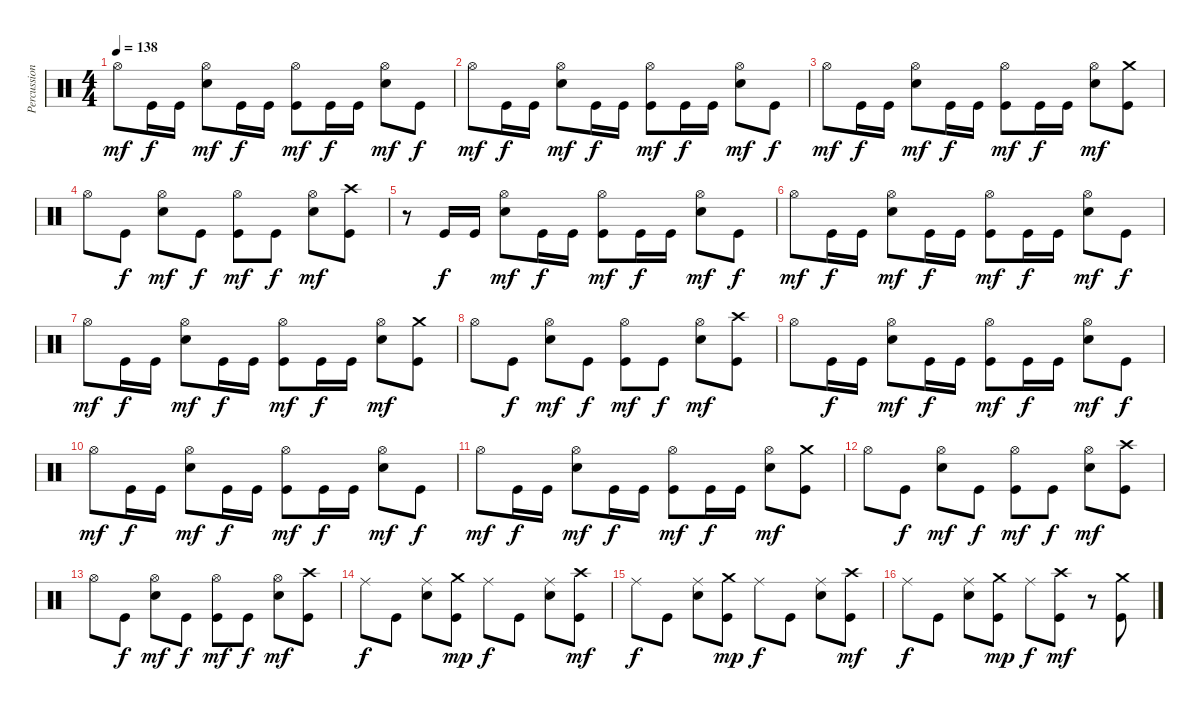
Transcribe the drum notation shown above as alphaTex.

\track ("Percussions" "Percussion") {instrument percussion}
\staff {score}
\articulation defaults
\ts (4 4)
\tempo 138
\clef neutral
\ks c "Hi-Hat (open)".8{dy mf} "Kick (hit)".16{dy f} "Kick (hit)".16
("Electric Snare (hit)" "Hi-Hat (open)").8{dy mf} "Kick (hit)".16{dy f} "Kick (hit)".16 ("Kick (hit)" "Hi-Hat (open)").8{dy mf} "Kick (hit)".16{dy f} "Kick (hit)".16 ("Electric Snare (hit)" "Hi-Hat (open)").8{dy mf} "Kick (hit)".8{dy f} |
"Hi-Hat (open)".8{dy mf} "Kick (hit)".16{dy f} "Kick (hit)".16 ("Electric Snare (hit)" "Hi-Hat (open)").8{dy mf} "Kick (hit)".16{dy f} "Kick (hit)".16 ("Kick (hit)" "Hi-Hat (open)").8{dy mf} "Kick (hit)".16{dy f} "Kick (hit)".16 ("Electric Snare (hit)" "Hi-Hat (open)").8{dy mf} "Kick (hit)".8{dy f} |
"Hi-Hat (open)".8{dy mf} "Kick (hit)".16{dy f} "Kick (hit)".16 ("Electric Snare (hit)" "Hi-Hat (open)").8{dy mf} "Kick (hit)".16{dy f} "Kick (hit)".16 ("Kick (hit)" "Hi-Hat (open)").8{dy mf} "Kick (hit)".16{dy f} "Kick (hit)".16 ("Electric Snare (hit)" "Hi-Hat (open)").8{dy mf} ("Kick (hit)" "Crash medium (hit)").8 |
"Hi-Hat (open)".8 "Kick (hit)".8{dy f} ("Electric Snare (hit)" "Hi-Hat (open)").8{dy mf} "Kick (hit)".8{dy f} ("Kick (hit)" "Hi-Hat (open)").8{dy mf} "Kick (hit)".8{dy f} ("Electric Snare (hit)" "Hi-Hat (open)").8{dy mf} ("Kick (hit)" "Crash high (hit)").8 |
r.8 "Kick (hit)".16{dy f} "Kick (hit)".16 ("Electric Snare (hit)" "Hi-Hat (open)").8{dy mf} "Kick (hit)".16{dy f} "Kick (hit)".16 ("Kick (hit)" "Hi-Hat (open)").8{dy mf} "Kick (hit)".16{dy f} "Kick (hit)".16 ("Electric Snare (hit)" "Hi-Hat (open)").8{dy mf} "Kick (hit)".8{dy f} |
"Hi-Hat (open)".8{dy mf} "Kick (hit)".16{dy f} "Kick (hit)".16 ("Electric Snare (hit)" "Hi-Hat (open)").8{dy mf} "Kick (hit)".16{dy f} "Kick (hit)".16 ("Kick (hit)" "Hi-Hat (open)").8{dy mf} "Kick (hit)".16{dy f} "Kick (hit)".16 ("Electric Snare (hit)" "Hi-Hat (open)").8{dy mf} "Kick (hit)".8{dy f} |
"Hi-Hat (open)".8{dy mf} "Kick (hit)".16{dy f} "Kick (hit)".16 ("Electric Snare (hit)" "Hi-Hat (open)").8{dy mf} "Kick (hit)".16{dy f} "Kick (hit)".16 ("Kick (hit)" "Hi-Hat (open)").8{dy mf} "Kick (hit)".16{dy f} "Kick (hit)".16 ("Electric Snare (hit)" "Hi-Hat (open)").8{dy mf} ("Kick (hit)" "Crash medium (hit)").8 |
"Hi-Hat (open)".8 "Kick (hit)".8{dy f} ("Electric Snare (hit)" "Hi-Hat (open)").8{dy mf} "Kick (hit)".8{dy f} ("Kick (hit)" "Hi-Hat (open)").8{dy mf} "Kick (hit)".8{dy f} ("Electric Snare (hit)" "Hi-Hat (open)").8{dy mf} ("Kick (hit)" "Crash high (hit)").8 |
"Hi-Hat (open)".8 "Kick (hit)".16{dy f} "Kick (hit)".16 ("Electric Snare (hit)" "Hi-Hat (open)").8{dy mf} "Kick (hit)".16{dy f} "Kick (hit)".16 ("Kick (hit)" "Hi-Hat (open)").8{dy mf} "Kick (hit)".16{dy f} "Kick (hit)".16 ("Electric Snare (hit)" "Hi-Hat (open)").8{dy mf} "Kick (hit)".8{dy f} |
"Hi-Hat (open)".8{dy mf} "Kick (hit)".16{dy f} "Kick (hit)".16 ("Electric Snare (hit)" "Hi-Hat (open)").8{dy mf} "Kick (hit)".16{dy f} "Kick (hit)".16 ("Kick (hit)" "Hi-Hat (open)").8{dy mf} "Kick (hit)".16{dy f} "Kick (hit)".16 ("Electric Snare (hit)" "Hi-Hat (open)").8{dy mf} "Kick (hit)".8{dy f} |
"Hi-Hat (open)".8{dy mf} "Kick (hit)".16{dy f} "Kick (hit)".16 ("Electric Snare (hit)" "Hi-Hat (open)").8{dy mf} "Kick (hit)".16{dy f} "Kick (hit)".16 ("Kick (hit)" "Hi-Hat (open)").8{dy mf} "Kick (hit)".16{dy f} "Kick (hit)".16 ("Electric Snare (hit)" "Hi-Hat (open)").8{dy mf} ("Kick (hit)" "Crash medium (hit)").8 |
"Hi-Hat (open)".8 "Kick (hit)".8{dy f} ("Electric Snare (hit)" "Hi-Hat (open)").8{dy mf} "Kick (hit)".8{dy f} ("Kick (hit)" "Hi-Hat (open)").8{dy mf} "Kick (hit)".8{dy f} ("Electric Snare (hit)" "Hi-Hat (open)").8{dy mf} ("Kick (hit)" "Crash high (hit)").8 |
"Hi-Hat (open)".8 "Kick (hit)".8{dy f} ("Electric Snare (hit)" "Hi-Hat (open)").8{dy mf} "Kick (hit)".8{dy f} ("Kick (hit)" "Hi-Hat (open)").8{dy mf} "Kick (hit)".8{dy f} ("Electric Snare (hit)" "Hi-Hat (open)").8{dy mf} ("Kick (hit)" "Crash high (hit)").8 |
"Ride (middle)".8{dy f} "Kick (hit)".8 ("Electric Snare (hit)" "Ride (middle)").8 ("Kick (hit)" "Crash medium (hit)").8{dy mp} "Ride (middle)".8{dy f} "Kick (hit)".8 ("Electric Snare (hit)" "Ride (middle)").8 ("Kick (hit)" "Crash high (hit)").8{dy mf} |
"Ride (middle)".8{dy f} "Kick (hit)".8 ("Electric Snare (hit)" "Ride (middle)").8 ("Kick (hit)" "Crash medium (hit)").8{dy mp} "Ride (middle)".8{dy f} "Kick (hit)".8 ("Electric Snare (hit)" "Ride (middle)").8 ("Kick (hit)" "Crash high (hit)").8{dy mf} |
"Ride (middle)".8{dy f} "Kick (hit)".8 ("Electric Snare (hit)" "Ride (middle)").8 ("Kick (hit)" "Crash medium (hit)").8{dy mp} "Ride (middle)".8{dy f} ("Kick (hit)" "Crash high (hit)").8{dy mf} r.8 ("Kick (hit)" "Crash medium (hit)").8
